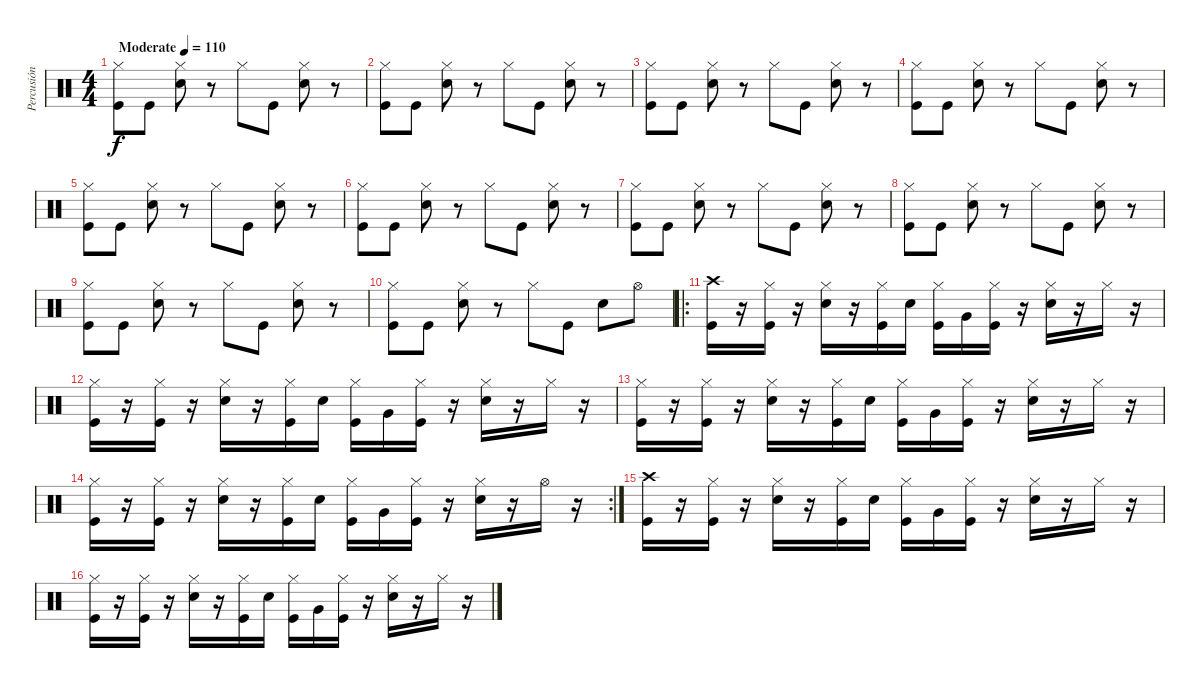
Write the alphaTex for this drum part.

\track ("Percusión" "Percusión") {instrument percussion}
\staff {score}
\articulation defaults
\ts (4 4)
\tempo (110 "Moderate")
\clef neutral
\ks c
("Hi-Hat (closed)" "Kick (hit)").8{dy f} "Kick (hit)".8 ("Hi-Hat (closed)" "Electric Snare (hit)").8 r.8 "Hi-Hat (closed)".8 "Kick (hit)".8 ("Hi-Hat (closed)" "Electric Snare (hit)").8 r.8 |
("Hi-Hat (closed)" "Kick (hit)").8 "Kick (hit)".8 ("Hi-Hat (closed)" "Electric Snare (hit)").8 r.8 "Hi-Hat (closed)".8 "Kick (hit)".8 ("Hi-Hat (closed)" "Electric Snare (hit)").8 r.8 |
("Hi-Hat (closed)" "Kick (hit)").8 "Kick (hit)".8 ("Hi-Hat (closed)" "Electric Snare (hit)").8 r.8 "Hi-Hat (closed)".8 "Kick (hit)".8 ("Hi-Hat (closed)" "Electric Snare (hit)").8 r.8 |
("Hi-Hat (closed)" "Kick (hit)").8 "Kick (hit)".8 ("Hi-Hat (closed)" "Electric Snare (hit)").8 r.8 "Hi-Hat (closed)".8 "Kick (hit)".8 ("Hi-Hat (closed)" "Electric Snare (hit)").8 r.8 |
("Hi-Hat (closed)" "Kick (hit)").8 "Kick (hit)".8 ("Hi-Hat (closed)" "Electric Snare (hit)").8 r.8 "Hi-Hat (closed)".8 "Kick (hit)".8 ("Hi-Hat (closed)" "Electric Snare (hit)").8 r.8 |
("Hi-Hat (closed)" "Kick (hit)").8 "Kick (hit)".8 ("Hi-Hat (closed)" "Electric Snare (hit)").8 r.8 "Hi-Hat (closed)".8 "Kick (hit)".8 ("Hi-Hat (closed)" "Electric Snare (hit)").8 r.8 |
("Hi-Hat (closed)" "Kick (hit)").8 "Kick (hit)".8 ("Hi-Hat (closed)" "Electric Snare (hit)").8 r.8 "Hi-Hat (closed)".8 "Kick (hit)".8 ("Hi-Hat (closed)" "Electric Snare (hit)").8 r.8 |
("Hi-Hat (closed)" "Kick (hit)").8 "Kick (hit)".8 ("Hi-Hat (closed)" "Electric Snare (hit)").8 r.8 "Hi-Hat (closed)".8 "Kick (hit)".8 ("Hi-Hat (closed)" "Electric Snare (hit)").8 r.8 |
("Hi-Hat (closed)" "Kick (hit)").8 "Kick (hit)".8 ("Hi-Hat (closed)" "Electric Snare (hit)").8 r.8 "Hi-Hat (closed)".8 "Kick (hit)".8 ("Hi-Hat (closed)" "Electric Snare (hit)").8 r.8 |
("Hi-Hat (closed)" "Kick (hit)").8 "Kick (hit)".8 ("Hi-Hat (closed)" "Electric Snare (hit)").8 r.8 "Hi-Hat (closed)".8 "Kick (hit)".8 "Electric Snare (hit)".8 "Hi-Hat (open)".8 |
\ro
("Crash high (hit)" "Kick (hit)").16 r.16 ("Hi-Hat (closed)" "Kick (hit)").16 r.16 ("Hi-Hat (closed)" "Electric Snare (hit)").16 r.16 ("Hi-Hat (closed)" "Kick (hit)").16 "Electric Snare (hit)".16 ("Hi-Hat (closed)" "Kick (hit)").16 "Very Low Tom (hit)".16 ("Hi-Hat (closed)" "Kick (hit)").16 r.16 ("Hi-Hat (closed)" "Electric Snare (hit)").16 r.16 "Hi-Hat (closed)".16 r.16 |
("Hi-Hat (closed)" "Kick (hit)").16 r.16 ("Hi-Hat (closed)" "Kick (hit)").16 r.16 ("Hi-Hat (closed)" "Electric Snare (hit)").16 r.16 ("Hi-Hat (closed)" "Kick (hit)").16 "Electric Snare (hit)".16 ("Hi-Hat (closed)" "Kick (hit)").16 "Very Low Tom (hit)".16 ("Hi-Hat (closed)" "Kick (hit)").16 r.16 ("Hi-Hat (closed)" "Electric Snare (hit)").16 r.16 "Hi-Hat (closed)".16 r.16 |
("Hi-Hat (closed)" "Kick (hit)").16 r.16 ("Hi-Hat (closed)" "Kick (hit)").16 r.16 ("Hi-Hat (closed)" "Electric Snare (hit)").16 r.16 ("Hi-Hat (closed)" "Kick (hit)").16 "Electric Snare (hit)".16 ("Hi-Hat (closed)" "Kick (hit)").16 "Very Low Tom (hit)".16 ("Hi-Hat (closed)" "Kick (hit)").16 r.16 ("Hi-Hat (closed)" "Electric Snare (hit)").16 r.16 "Hi-Hat (closed)".16 r.16 |
\rc 2
("Hi-Hat (closed)" "Kick (hit)").16 r.16 ("Hi-Hat (closed)" "Kick (hit)").16 r.16 ("Hi-Hat (closed)" "Electric Snare (hit)").16 r.16 ("Hi-Hat (closed)" "Kick (hit)").16 "Electric Snare (hit)".16 ("Hi-Hat (closed)" "Kick (hit)").16 "Very Low Tom (hit)".16 ("Hi-Hat (closed)" "Kick (hit)").16 r.16 ("Hi-Hat (closed)" "Electric Snare (hit)").16 r.16 "Hi-Hat (open)".16 r.16 |
("Crash high (hit)" "Kick (hit)").16 r.16 ("Hi-Hat (closed)" "Kick (hit)").16 r.16 ("Hi-Hat (closed)" "Electric Snare (hit)").16 r.16 ("Hi-Hat (closed)" "Kick (hit)").16 "Electric Snare (hit)".16 ("Hi-Hat (closed)" "Kick (hit)").16 "Very Low Tom (hit)".16 ("Hi-Hat (closed)" "Kick (hit)").16 r.16 ("Hi-Hat (closed)" "Electric Snare (hit)").16 r.16 "Hi-Hat (closed)".16 r.16 |
("Hi-Hat (closed)" "Kick (hit)").16 r.16 ("Hi-Hat (closed)" "Kick (hit)").16 r.16 ("Hi-Hat (closed)" "Electric Snare (hit)").16 r.16 ("Hi-Hat (closed)" "Kick (hit)").16 "Electric Snare (hit)".16 ("Hi-Hat (closed)" "Kick (hit)").16 "Very Low Tom (hit)".16 ("Hi-Hat (closed)" "Kick (hit)").16 r.16 ("Hi-Hat (closed)" "Electric Snare (hit)").16 r.16 "Hi-Hat (closed)".16 r.16
